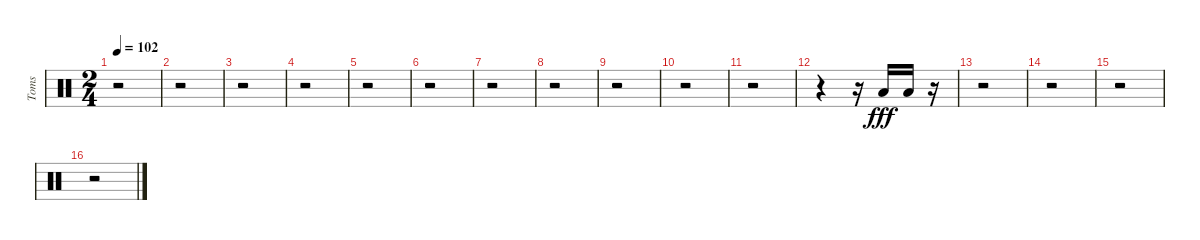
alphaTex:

\track ("Toms" "Toms") {instrument percussion}
\staff {score}
\articulation defaults
\ts (2 4)
\tempo 102
\clef neutral
\ks c
r.2{dy fff} |
r.2 |
r.2 |
r.2 |
r.2 |
r.2 |
r.2 |
r.2 |
r.2 |
r.2 |
r.2 |
r.4 r.16 "Low Floor Tom (hit)".16 "Low Floor Tom (hit)".16 r.16 |
r.2 |
r.2 |
r.2 |
r.2
